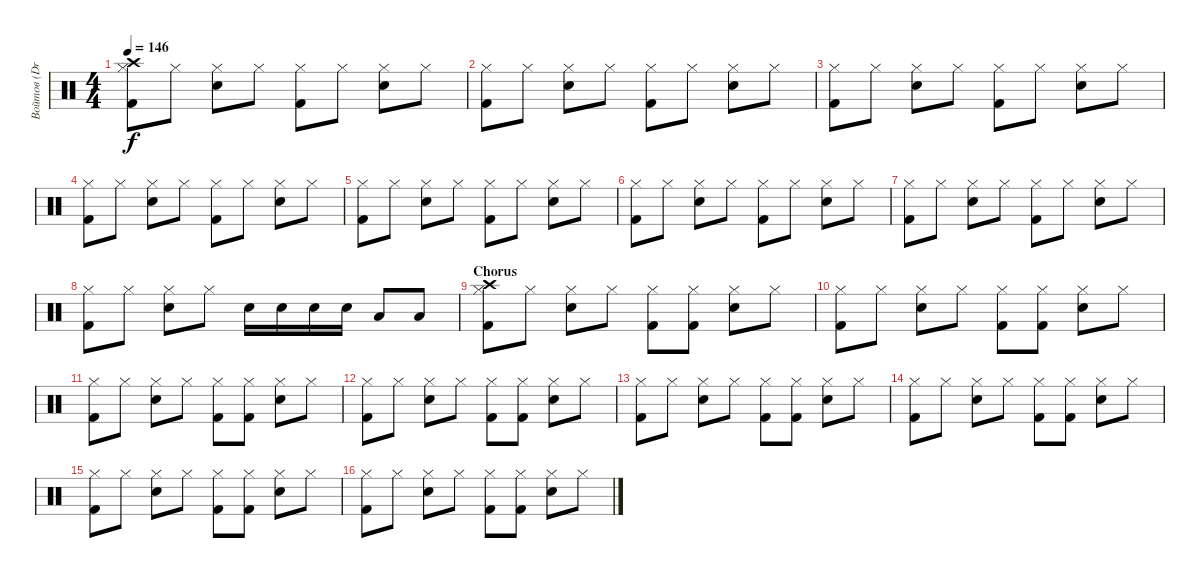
\track ("Войтов (Drums)" "Войтов (Dr") {instrument percussion}
\staff {score}
\articulation defaults
\ts (4 4)
\tempo 146
\clef neutral
\ks c
("Kick (hit) 2" "Hi-Hat (closed)" "Crash high (hit)").8{dy f} "Hi-Hat (closed)".8 ("Electric Snare (hit)" "Hi-Hat (closed)").8 "Hi-Hat (closed)".8 ("Kick (hit) 2" "Hi-Hat (closed)").8 "Hi-Hat (closed)".8 ("Electric Snare (hit)" "Hi-Hat (closed)").8 "Hi-Hat (closed)".8 |
("Kick (hit) 2" "Hi-Hat (closed)").8 "Hi-Hat (closed)".8 ("Electric Snare (hit)" "Hi-Hat (closed)").8 "Hi-Hat (closed)".8 ("Kick (hit) 2" "Hi-Hat (closed)").8 "Hi-Hat (closed)".8 ("Electric Snare (hit)" "Hi-Hat (closed)").8 "Hi-Hat (closed)".8 |
("Kick (hit) 2" "Hi-Hat (closed)").8 "Hi-Hat (closed)".8 ("Electric Snare (hit)" "Hi-Hat (closed)").8 "Hi-Hat (closed)".8 ("Kick (hit) 2" "Hi-Hat (closed)").8 "Hi-Hat (closed)".8 ("Electric Snare (hit)" "Hi-Hat (closed)").8 "Hi-Hat (closed)".8 |
("Kick (hit) 2" "Hi-Hat (closed)").8 "Hi-Hat (closed)".8 ("Electric Snare (hit)" "Hi-Hat (closed)").8 "Hi-Hat (closed)".8 ("Kick (hit) 2" "Hi-Hat (closed)").8 "Hi-Hat (closed)".8 ("Electric Snare (hit)" "Hi-Hat (closed)").8 "Hi-Hat (closed)".8 |
("Kick (hit) 2" "Hi-Hat (closed)").8 "Hi-Hat (closed)".8 ("Electric Snare (hit)" "Hi-Hat (closed)").8 "Hi-Hat (closed)".8 ("Kick (hit) 2" "Hi-Hat (closed)").8 "Hi-Hat (closed)".8 ("Electric Snare (hit)" "Hi-Hat (closed)").8 "Hi-Hat (closed)".8 |
("Kick (hit) 2" "Hi-Hat (closed)").8 "Hi-Hat (closed)".8 ("Electric Snare (hit)" "Hi-Hat (closed)").8 "Hi-Hat (closed)".8 ("Kick (hit) 2" "Hi-Hat (closed)").8 "Hi-Hat (closed)".8 ("Electric Snare (hit)" "Hi-Hat (closed)").8 "Hi-Hat (closed)".8 |
("Kick (hit) 2" "Hi-Hat (closed)").8 "Hi-Hat (closed)".8 ("Electric Snare (hit)" "Hi-Hat (closed)").8 "Hi-Hat (closed)".8 ("Kick (hit) 2" "Hi-Hat (closed)").8 "Hi-Hat (closed)".8 ("Electric Snare (hit)" "Hi-Hat (closed)").8 "Hi-Hat (closed)".8 |
("Kick (hit) 2" "Hi-Hat (closed)").8 "Hi-Hat (closed)".8 ("Electric Snare (hit)" "Hi-Hat (closed)").8 "Hi-Hat (closed)".8 "Electric Snare (hit)".16 "Electric Snare (hit)".16 "Electric Snare (hit)".16 "Electric Snare (hit)".16 "Low Tom (hit)".8 "Low Tom (hit)".8 |
\section ("" "Chorus")
("Kick (hit) 2" "Crash high (hit)" "Hi-Hat (closed)").8 "Hi-Hat (closed)".8 ("Electric Snare (hit)" "Hi-Hat (closed)").8 "Hi-Hat (closed)".8 ("Kick (hit) 2" "Hi-Hat (closed)").8 ("Kick (hit) 2" "Hi-Hat (closed)").8 ("Electric Snare (hit)" "Hi-Hat (closed)").8 "Hi-Hat (closed)".8 |
("Kick (hit) 2" "Hi-Hat (closed)").8 "Hi-Hat (closed)".8 ("Electric Snare (hit)" "Hi-Hat (closed)").8 "Hi-Hat (closed)".8 ("Kick (hit) 2" "Hi-Hat (closed)").8 ("Kick (hit) 2" "Hi-Hat (closed)").8 ("Electric Snare (hit)" "Hi-Hat (closed)").8 "Hi-Hat (closed)".8 |
("Kick (hit) 2" "Hi-Hat (closed)").8 "Hi-Hat (closed)".8 ("Electric Snare (hit)" "Hi-Hat (closed)").8 "Hi-Hat (closed)".8 ("Kick (hit) 2" "Hi-Hat (closed)").8 ("Kick (hit) 2" "Hi-Hat (closed)").8 ("Electric Snare (hit)" "Hi-Hat (closed)").8 "Hi-Hat (closed)".8 |
("Kick (hit) 2" "Hi-Hat (closed)").8 "Hi-Hat (closed)".8 ("Electric Snare (hit)" "Hi-Hat (closed)").8 "Hi-Hat (closed)".8 ("Kick (hit) 2" "Hi-Hat (closed)").8 ("Kick (hit) 2" "Hi-Hat (closed)").8 ("Electric Snare (hit)" "Hi-Hat (closed)").8 "Hi-Hat (closed)".8 |
("Kick (hit) 2" "Hi-Hat (closed)").8 "Hi-Hat (closed)".8 ("Electric Snare (hit)" "Hi-Hat (closed)").8 "Hi-Hat (closed)".8 ("Kick (hit) 2" "Hi-Hat (closed)").8 ("Kick (hit) 2" "Hi-Hat (closed)").8 ("Electric Snare (hit)" "Hi-Hat (closed)").8 "Hi-Hat (closed)".8 |
("Kick (hit) 2" "Hi-Hat (closed)").8 "Hi-Hat (closed)".8 ("Electric Snare (hit)" "Hi-Hat (closed)").8 "Hi-Hat (closed)".8 ("Kick (hit) 2" "Hi-Hat (closed)").8 ("Kick (hit) 2" "Hi-Hat (closed)").8 ("Electric Snare (hit)" "Hi-Hat (closed)").8 "Hi-Hat (closed)".8 |
("Kick (hit) 2" "Hi-Hat (closed)").8 "Hi-Hat (closed)".8 ("Electric Snare (hit)" "Hi-Hat (closed)").8 "Hi-Hat (closed)".8 ("Kick (hit) 2" "Hi-Hat (closed)").8 ("Kick (hit) 2" "Hi-Hat (closed)").8 ("Electric Snare (hit)" "Hi-Hat (closed)").8 "Hi-Hat (closed)".8 |
("Kick (hit) 2" "Hi-Hat (closed)").8 "Hi-Hat (closed)".8 ("Electric Snare (hit)" "Hi-Hat (closed)").8 "Hi-Hat (closed)".8 ("Kick (hit) 2" "Hi-Hat (closed)").8 ("Kick (hit) 2" "Hi-Hat (closed)").8 ("Electric Snare (hit)" "Hi-Hat (closed)").8 "Hi-Hat (closed)".8
